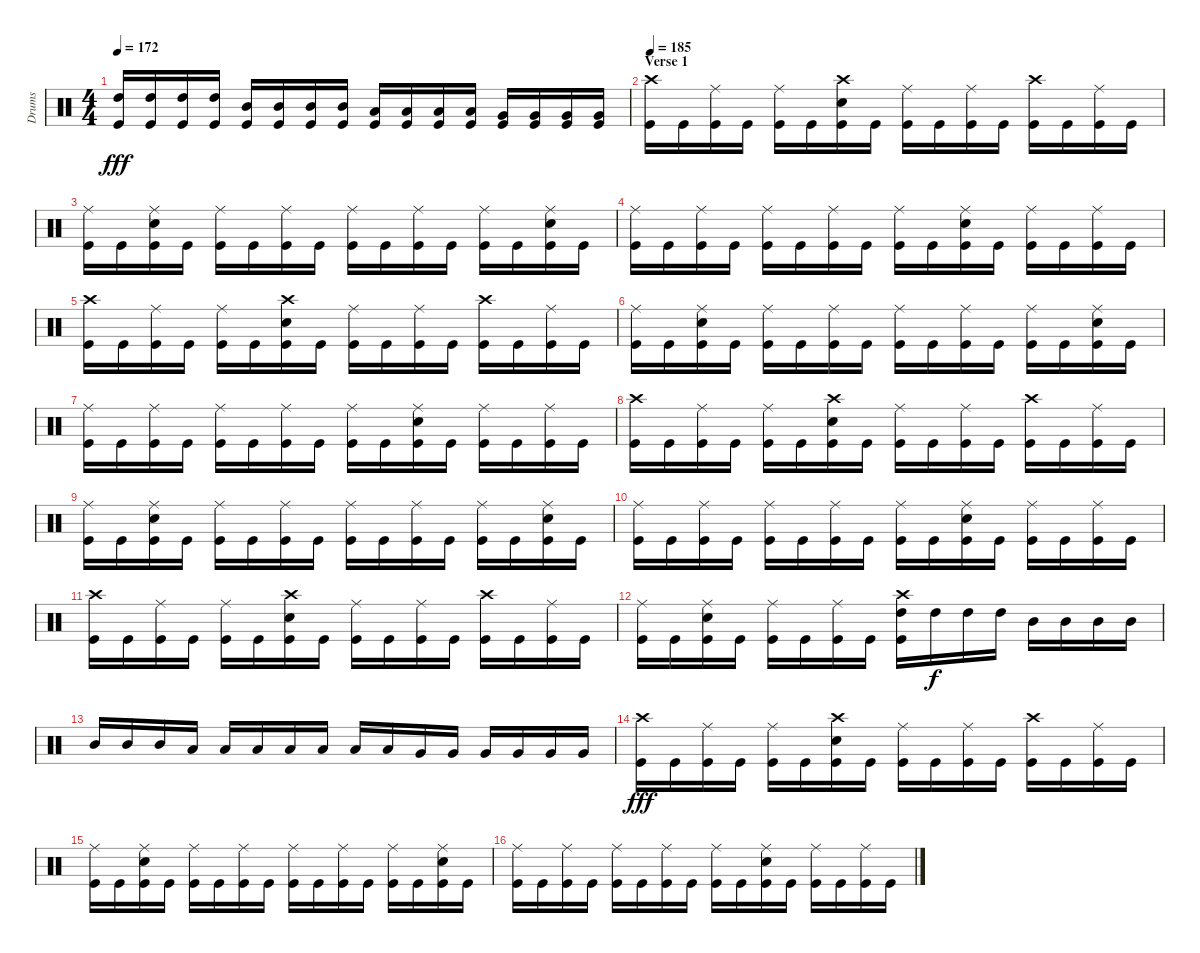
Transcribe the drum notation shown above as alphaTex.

\track ("Drums" "Drums") {instrument percussion}
\staff {score}
\articulation defaults
\ts (4 4)
\tempo 172
\clef neutral
\ks c
("High Tom (hit)" "Kick (hit)").16{dy fff} ("High Tom (hit)" "Kick (hit)").16 ("High Tom (hit)" "Kick (hit)").16 ("High Tom (hit)" "Kick (hit)").16 ("Mid Tom (hit)" "Kick (hit)").16 ("Mid Tom (hit)" "Kick (hit)").16 ("Mid Tom (hit)" "Kick (hit)").16 ("Mid Tom (hit)" "Kick (hit)").16 ("Low Tom (hit)" "Kick (hit)").16 ("Low Tom (hit)" "Kick (hit)").16 ("Low Tom (hit)" "Kick (hit)").16 ("Low Tom (hit)" "Kick (hit)").16 ("Very Low Tom (hit)" "Kick (hit)").16 ("Very Low Tom (hit)" "Kick (hit)").16 ("Very Low Tom (hit)" "Kick (hit)").16 ("Very Low Tom (hit)" "Kick (hit)").16 |
\section ("" "Verse 1")
\tempo 185
("Crash high (hit)" "Kick (hit)").16 "Kick (hit)".16 ("Ride (middle)" "Kick (hit)").16 "Kick (hit)".16 ("Ride (middle)" "Kick (hit)").16 "Kick (hit)".16 ("Crash high (hit)" "Electric Snare (hit)" "Kick (hit)").16 "Kick (hit)".16 ("Ride (middle)" "Kick (hit)").16 "Kick (hit)".16 ("Ride (middle)" "Kick (hit)").16 "Kick (hit)".16 ("Crash high (hit)" "Kick (hit)").16 "Kick (hit)".16 ("Ride (middle)" "Kick (hit)").16 "Kick (hit)".16 |
("Ride (middle)" "Kick (hit)").16 "Kick (hit)".16 ("Ride (middle)" "Electric Snare (hit)" "Kick (hit)").16 "Kick (hit)".16 ("Ride (middle)" "Kick (hit)").16 "Kick (hit)".16 ("Ride (middle)" "Kick (hit)").16 "Kick (hit)".16 ("Ride (middle)" "Kick (hit)").16 "Kick (hit)".16 ("Ride (middle)" "Kick (hit)").16 "Kick (hit)".16 ("Ride (middle)" "Kick (hit)").16 "Kick (hit)".16 ("Ride (middle)" "Electric Snare (hit)" "Kick (hit)").16 "Kick (hit)".16 |
("Ride (middle)" "Kick (hit)").16 "Kick (hit)".16 ("Ride (middle)" "Kick (hit)").16 "Kick (hit)".16 ("Ride (middle)" "Kick (hit)").16 "Kick (hit)".16 ("Ride (middle)" "Kick (hit)").16 "Kick (hit)".16 ("Ride (middle)" "Kick (hit)").16 "Kick (hit)".16 ("Ride (middle)" "Electric Snare (hit)" "Kick (hit)").16 "Kick (hit)".16 ("Ride (middle)" "Kick (hit)").16 "Kick (hit)".16 ("Ride (middle)" "Kick (hit)").16 "Kick (hit)".16 |
("Crash high (hit)" "Kick (hit)").16 "Kick (hit)".16 ("Ride (middle)" "Kick (hit)").16 "Kick (hit)".16 ("Ride (middle)" "Kick (hit)").16 "Kick (hit)".16 ("Crash high (hit)" "Electric Snare (hit)" "Kick (hit)").16 "Kick (hit)".16 ("Ride (middle)" "Kick (hit)").16 "Kick (hit)".16 ("Ride (middle)" "Kick (hit)").16 "Kick (hit)".16 ("Crash high (hit)" "Kick (hit)").16 "Kick (hit)".16 ("Ride (middle)" "Kick (hit)").16 "Kick (hit)".16 |
("Ride (middle)" "Kick (hit)").16 "Kick (hit)".16 ("Ride (middle)" "Electric Snare (hit)" "Kick (hit)").16 "Kick (hit)".16 ("Ride (middle)" "Kick (hit)").16 "Kick (hit)".16 ("Ride (middle)" "Kick (hit)").16 "Kick (hit)".16 ("Ride (middle)" "Kick (hit)").16 "Kick (hit)".16 ("Ride (middle)" "Kick (hit)").16 "Kick (hit)".16 ("Ride (middle)" "Kick (hit)").16 "Kick (hit)".16 ("Ride (middle)" "Electric Snare (hit)" "Kick (hit)").16 "Kick (hit)".16 |
("Ride (middle)" "Kick (hit)").16 "Kick (hit)".16 ("Ride (middle)" "Kick (hit)").16 "Kick (hit)".16 ("Ride (middle)" "Kick (hit)").16 "Kick (hit)".16 ("Ride (middle)" "Kick (hit)").16 "Kick (hit)".16 ("Ride (middle)" "Kick (hit)").16 "Kick (hit)".16 ("Ride (middle)" "Electric Snare (hit)" "Kick (hit)").16 "Kick (hit)".16 ("Ride (middle)" "Kick (hit)").16 "Kick (hit)".16 ("Ride (middle)" "Kick (hit)").16 "Kick (hit)".16 |
("Crash high (hit)" "Kick (hit)").16 "Kick (hit)".16 ("Ride (middle)" "Kick (hit)").16 "Kick (hit)".16 ("Ride (middle)" "Kick (hit)").16 "Kick (hit)".16 ("Crash high (hit)" "Electric Snare (hit)" "Kick (hit)").16 "Kick (hit)".16 ("Ride (middle)" "Kick (hit)").16 "Kick (hit)".16 ("Ride (middle)" "Kick (hit)").16 "Kick (hit)".16 ("Crash high (hit)" "Kick (hit)").16 "Kick (hit)".16 ("Ride (middle)" "Kick (hit)").16 "Kick (hit)".16 |
("Ride (middle)" "Kick (hit)").16 "Kick (hit)".16 ("Ride (middle)" "Electric Snare (hit)" "Kick (hit)").16 "Kick (hit)".16 ("Ride (middle)" "Kick (hit)").16 "Kick (hit)".16 ("Ride (middle)" "Kick (hit)").16 "Kick (hit)".16 ("Ride (middle)" "Kick (hit)").16 "Kick (hit)".16 ("Ride (middle)" "Kick (hit)").16 "Kick (hit)".16 ("Ride (middle)" "Kick (hit)").16 "Kick (hit)".16 ("Ride (middle)" "Electric Snare (hit)" "Kick (hit)").16 "Kick (hit)".16 |
("Ride (middle)" "Kick (hit)").16 "Kick (hit)".16 ("Ride (middle)" "Kick (hit)").16 "Kick (hit)".16 ("Ride (middle)" "Kick (hit)").16 "Kick (hit)".16 ("Ride (middle)" "Kick (hit)").16 "Kick (hit)".16 ("Ride (middle)" "Kick (hit)").16 "Kick (hit)".16 ("Ride (middle)" "Electric Snare (hit)" "Kick (hit)").16 "Kick (hit)".16 ("Ride (middle)" "Kick (hit)").16 "Kick (hit)".16 ("Ride (middle)" "Kick (hit)").16 "Kick (hit)".16 |
("Crash high (hit)" "Kick (hit)").16 "Kick (hit)".16 ("Ride (middle)" "Kick (hit)").16 "Kick (hit)".16 ("Ride (middle)" "Kick (hit)").16 "Kick (hit)".16 ("Crash high (hit)" "Electric Snare (hit)" "Kick (hit)").16 "Kick (hit)".16 ("Ride (middle)" "Kick (hit)").16 "Kick (hit)".16 ("Ride (middle)" "Kick (hit)").16 "Kick (hit)".16 ("Crash high (hit)" "Kick (hit)").16 "Kick (hit)".16 ("Ride (middle)" "Kick (hit)").16 "Kick (hit)".16 |
("Ride (middle)" "Kick (hit)").16 "Kick (hit)".16 ("Ride (middle)" "Electric Snare (hit)" "Kick (hit)").16 "Kick (hit)".16 ("Ride (middle)" "Kick (hit)").16 "Kick (hit)".16 ("Ride (middle)" "Kick (hit)").16 "Kick (hit)".16 ("Crash high (hit)" "High Tom (hit)" "Kick (hit)").16 "High Tom (hit)".16{dy f} "High Tom (hit)".16 "High Tom (hit)".16 "Mid Tom (hit)".16 "Mid Tom (hit)".16 "Mid Tom (hit)".16 "Mid Tom (hit)".16 |
"Mid Tom (hit)".16 "Mid Tom (hit)".16 "Mid Tom (hit)".16 "Low Tom (hit)".16 "Low Tom (hit)".16 "Low Tom (hit)".16 "Low Tom (hit)".16 "Low Tom (hit)".16 "Low Tom (hit)".16 "Low Tom (hit)".16 "Very Low Tom (hit)".16 "Very Low Tom (hit)".16 "Very Low Tom (hit)".16 "Very Low Tom (hit)".16 "Very Low Tom (hit)".16 "Very Low Tom (hit)".16 |
("Crash high (hit)" "Kick (hit)").16{dy fff} "Kick (hit)".16 ("Ride (middle)" "Kick (hit)").16 "Kick (hit)".16 ("Ride (middle)" "Kick (hit)").16 "Kick (hit)".16 ("Crash high (hit)" "Electric Snare (hit)" "Kick (hit)").16 "Kick (hit)".16 ("Ride (middle)" "Kick (hit)").16 "Kick (hit)".16 ("Ride (middle)" "Kick (hit)").16 "Kick (hit)".16 ("Crash high (hit)" "Kick (hit)").16 "Kick (hit)".16 ("Ride (middle)" "Kick (hit)").16 "Kick (hit)".16 |
("Ride (middle)" "Kick (hit)").16 "Kick (hit)".16 ("Ride (middle)" "Electric Snare (hit)" "Kick (hit)").16 "Kick (hit)".16 ("Ride (middle)" "Kick (hit)").16 "Kick (hit)".16 ("Ride (middle)" "Kick (hit)").16 "Kick (hit)".16 ("Ride (middle)" "Kick (hit)").16 "Kick (hit)".16 ("Ride (middle)" "Kick (hit)").16 "Kick (hit)".16 ("Ride (middle)" "Kick (hit)").16 "Kick (hit)".16 ("Ride (middle)" "Electric Snare (hit)" "Kick (hit)").16 "Kick (hit)".16 |
("Ride (middle)" "Kick (hit)").16 "Kick (hit)".16 ("Ride (middle)" "Kick (hit)").16 "Kick (hit)".16 ("Ride (middle)" "Kick (hit)").16 "Kick (hit)".16 ("Ride (middle)" "Kick (hit)").16 "Kick (hit)".16 ("Ride (middle)" "Kick (hit)").16 "Kick (hit)".16 ("Ride (middle)" "Electric Snare (hit)" "Kick (hit)").16 "Kick (hit)".16 ("Ride (middle)" "Kick (hit)").16 "Kick (hit)".16 ("Ride (middle)" "Kick (hit)").16 "Kick (hit)".16
